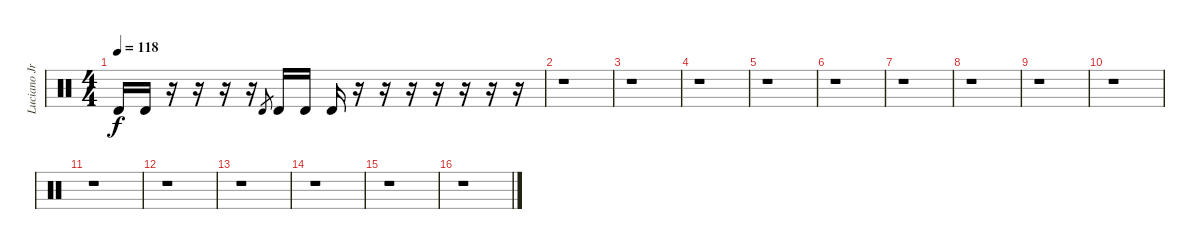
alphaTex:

\track ("Luciano Jr." "Luciano Jr") {instrument percussion}
\staff {score}
\articulation defaults
\ts (4 4)
\tempo 118
\clef neutral
\ks c "Timbale high (hit)".16{dy f} "Timbale high (hit)".16
r.16 r.16 r.16 r.16 "Timbale high (hit)".8{gr} "Timbale high (hit)".16 "Timbale high (hit)".16 "Timbale high (hit)".16 r.16 r.16 r.16 r.16 r.16 r.16 r.16 |
r.1 |
r.1 |
r.1 |
r.1 |
r.1 |
r.1 |
r.1 |
r.1 |
r.1 |
r.1 |
r.1 |
r.1 |
r.1 |
r.1 |
r.1
